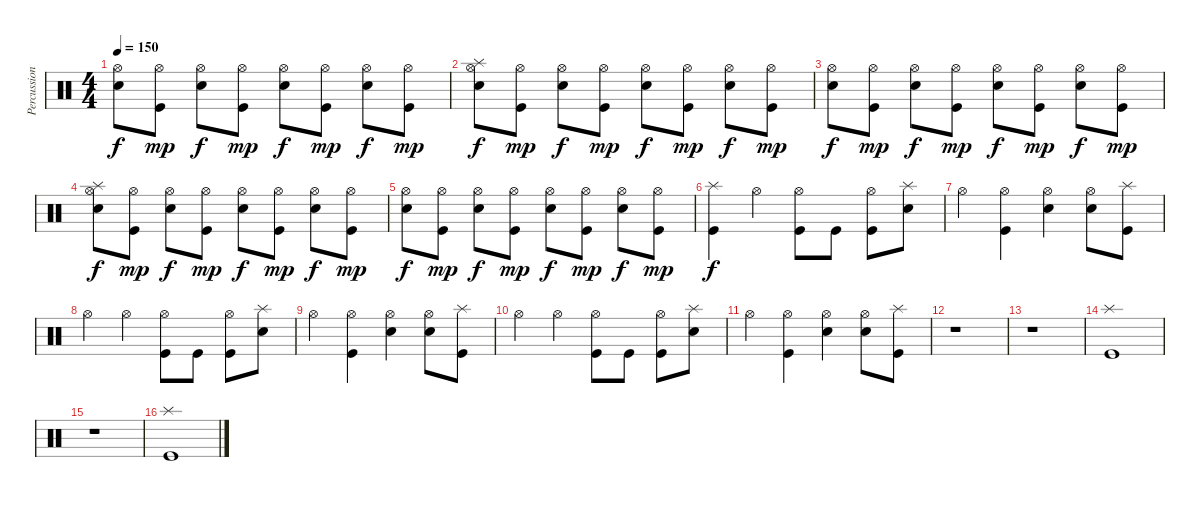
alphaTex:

\track ("Percussions" "Percussion") {instrument percussion}
\staff {score}
\articulation defaults
\ts (4 4)
\tempo 150
\clef neutral
\ks c
("Hi-Hat (open)" "Electric Snare (hit)").8{dy f} ("Hi-Hat (open)" "Kick (hit)").8{dy mp} ("Hi-Hat (open)" "Electric Snare (hit)").8{dy f} ("Hi-Hat (open)" "Kick (hit)").8{dy mp} ("Hi-Hat (open)" "Electric Snare (hit)").8{dy f} ("Hi-Hat (open)" "Kick (hit)").8{dy mp} ("Hi-Hat (open)" "Electric Snare (hit)").8{dy f} ("Hi-Hat (open)" "Kick (hit)").8{dy mp} |
("Splash (hit)" "Hi-Hat (open)" "Electric Snare (hit)").8{dy f} ("Hi-Hat (open)" "Kick (hit)").8{dy mp} ("Hi-Hat (open)" "Electric Snare (hit)").8{dy f} ("Hi-Hat (open)" "Kick (hit)").8{dy mp} ("Hi-Hat (open)" "Electric Snare (hit)").8{dy f} ("Hi-Hat (open)" "Kick (hit)").8{dy mp} ("Hi-Hat (open)" "Electric Snare (hit)").8{dy f} ("Hi-Hat (open)" "Kick (hit)").8{dy mp} |
("Hi-Hat (open)" "Electric Snare (hit)").8{dy f} ("Hi-Hat (open)" "Kick (hit)").8{dy mp} ("Hi-Hat (open)" "Electric Snare (hit)").8{dy f} ("Hi-Hat (open)" "Kick (hit)").8{dy mp} ("Hi-Hat (open)" "Electric Snare (hit)").8{dy f} ("Hi-Hat (open)" "Kick (hit)").8{dy mp} ("Hi-Hat (open)" "Electric Snare (hit)").8{dy f} ("Hi-Hat (open)" "Kick (hit)").8{dy mp} |
("Splash (hit)" "Hi-Hat (open)" "Electric Snare (hit)").8{dy f} ("Hi-Hat (open)" "Kick (hit)").8{dy mp} ("Hi-Hat (open)" "Electric Snare (hit)").8{dy f} ("Hi-Hat (open)" "Kick (hit)").8{dy mp} ("Hi-Hat (open)" "Electric Snare (hit)").8{dy f} ("Hi-Hat (open)" "Kick (hit)").8{dy mp} ("Hi-Hat (open)" "Electric Snare (hit)").8{dy f} ("Hi-Hat (open)" "Kick (hit)").8{dy mp} |
("Hi-Hat (open)" "Electric Snare (hit)").8{dy f} ("Hi-Hat (open)" "Kick (hit)").8{dy mp} ("Hi-Hat (open)" "Electric Snare (hit)").8{dy f} ("Hi-Hat (open)" "Kick (hit)").8{dy mp} ("Hi-Hat (open)" "Electric Snare (hit)").8{dy f} ("Hi-Hat (open)" "Kick (hit)").8{dy mp} ("Hi-Hat (open)" "Electric Snare (hit)").8{dy f} ("Hi-Hat (open)" "Kick (hit)").8{dy mp} |
("Splash (hit)" "Kick (hit)").4{dy f} "Hi-Hat (open)".4 ("Hi-Hat (open)" "Kick (hit)").8 "Kick (hit)".8 ("Hi-Hat (open)" "Kick (hit)").8 ("Splash (hit)" "Electric Snare (hit)").8 |
"Hi-Hat (open)".4 ("Hi-Hat (open)" "Kick (hit)").4 ("Hi-Hat (open)" "Electric Snare (hit)").4 ("Hi-Hat (open)" "Electric Snare (hit)").8 ("Splash (hit)" "Kick (hit)").8 |
"Hi-Hat (open)".4 "Hi-Hat (open)".4 ("Hi-Hat (open)" "Kick (hit)").8 "Kick (hit)".8 ("Hi-Hat (open)" "Kick (hit)").8 ("Splash (hit)" "Electric Snare (hit)").8 |
"Hi-Hat (open)".4 ("Hi-Hat (open)" "Kick (hit)").4 ("Hi-Hat (open)" "Electric Snare (hit)").4 ("Hi-Hat (open)" "Electric Snare (hit)").8 ("Splash (hit)" "Kick (hit)").8 |
"Hi-Hat (open)".4 "Hi-Hat (open)".4 ("Hi-Hat (open)" "Kick (hit)").8 "Kick (hit)".8 ("Hi-Hat (open)" "Kick (hit)").8 ("Splash (hit)" "Electric Snare (hit)").8 |
"Hi-Hat (open)".4 ("Hi-Hat (open)" "Kick (hit)").4 ("Hi-Hat (open)" "Electric Snare (hit)").4 ("Hi-Hat (open)" "Electric Snare (hit)").8 ("Splash (hit)" "Kick (hit)").8 |
r.1 |
r.1 |
("Splash (hit)" "Kick (hit)").1 |
r.1 |
("Splash (hit)" "Kick (hit)").1
